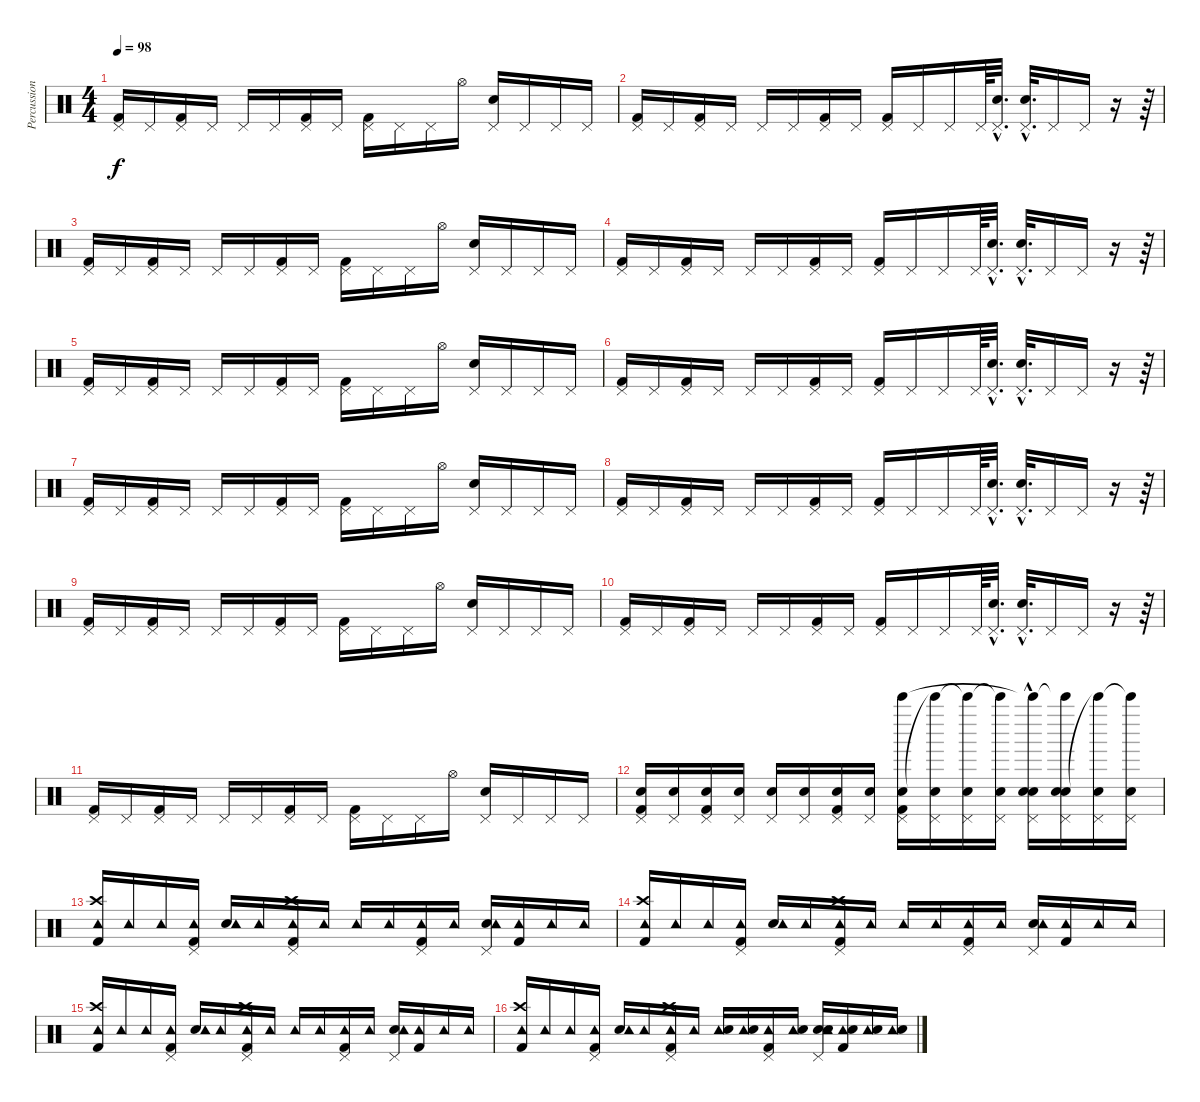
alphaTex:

\track ("Percussion" "Percussion") {instrument percussion}
\staff {score}
\articulation defaults
\ts (4 4)
\tempo 98
\clef neutral
\ks c
("Kick (hit) 2" "Pedal Hi-Hat (hit)").16{dy f} "Pedal Hi-Hat (hit)".16 ("Kick (hit) 2" "Pedal Hi-Hat (hit)").16 "Pedal Hi-Hat (hit)".16 "Pedal Hi-Hat (hit)".16 "Pedal Hi-Hat (hit)".16 ("Kick (hit) 2" "Pedal Hi-Hat (hit)").16 "Pedal Hi-Hat (hit)".16 ("Kick (hit) 2" "Pedal Hi-Hat (hit)").16 "Pedal Hi-Hat (hit)".16 "Pedal Hi-Hat (hit)".16 "Hi-Hat (open)".16 ("Snare (hit) 2" "Pedal Hi-Hat (hit)").16 "Pedal Hi-Hat (hit)".16 "Pedal Hi-Hat (hit)".16 "Pedal Hi-Hat (hit)".16 |
("Kick (hit) 2" "Pedal Hi-Hat (hit)").16 "Pedal Hi-Hat (hit)".16 ("Kick (hit) 2" "Pedal Hi-Hat (hit)").16 "Pedal Hi-Hat (hit)".16 "Pedal Hi-Hat (hit)".16 "Pedal Hi-Hat (hit)".16 ("Kick (hit) 2" "Pedal Hi-Hat (hit)").16 "Pedal Hi-Hat (hit)".16 ("Kick (hit) 2" "Pedal Hi-Hat (hit)").16 "Pedal Hi-Hat (hit)".16 "Pedal Hi-Hat (hit)".16 "Pedal Hi-Hat (hit)".64 ("Snare (hit) 2"{hac} "Pedal Hi-Hat (hit)"{hac}).32{d} ("Snare (hit) 2"{hac} "Pedal Hi-Hat (hit)"{hac}).32{d} "Pedal Hi-Hat (hit)".16 "Pedal Hi-Hat (hit)".16 r.16 r.64 |
("Kick (hit) 2" "Pedal Hi-Hat (hit)").16 "Pedal Hi-Hat (hit)".16 ("Kick (hit) 2" "Pedal Hi-Hat (hit)").16 "Pedal Hi-Hat (hit)".16 "Pedal Hi-Hat (hit)".16 "Pedal Hi-Hat (hit)".16 ("Kick (hit) 2" "Pedal Hi-Hat (hit)").16 "Pedal Hi-Hat (hit)".16 ("Kick (hit) 2" "Pedal Hi-Hat (hit)").16 "Pedal Hi-Hat (hit)".16 "Pedal Hi-Hat (hit)".16 "Hi-Hat (open)".16 ("Snare (hit) 2" "Pedal Hi-Hat (hit)").16 "Pedal Hi-Hat (hit)".16 "Pedal Hi-Hat (hit)".16 "Pedal Hi-Hat (hit)".16 |
("Kick (hit) 2" "Pedal Hi-Hat (hit)").16 "Pedal Hi-Hat (hit)".16 ("Kick (hit) 2" "Pedal Hi-Hat (hit)").16 "Pedal Hi-Hat (hit)".16 "Pedal Hi-Hat (hit)".16 "Pedal Hi-Hat (hit)".16 ("Kick (hit) 2" "Pedal Hi-Hat (hit)").16 "Pedal Hi-Hat (hit)".16 ("Kick (hit) 2" "Pedal Hi-Hat (hit)").16 "Pedal Hi-Hat (hit)".16 "Pedal Hi-Hat (hit)".16 "Pedal Hi-Hat (hit)".64 ("Snare (hit) 2"{hac} "Pedal Hi-Hat (hit)"{hac}).32{d} ("Snare (hit) 2"{hac} "Pedal Hi-Hat (hit)"{hac}).32{d} "Pedal Hi-Hat (hit)".16 "Pedal Hi-Hat (hit)".16 r.16 r.64 |
("Kick (hit) 2" "Pedal Hi-Hat (hit)").16 "Pedal Hi-Hat (hit)".16 ("Kick (hit) 2" "Pedal Hi-Hat (hit)").16 "Pedal Hi-Hat (hit)".16 "Pedal Hi-Hat (hit)".16 "Pedal Hi-Hat (hit)".16 ("Kick (hit) 2" "Pedal Hi-Hat (hit)").16 "Pedal Hi-Hat (hit)".16 ("Kick (hit) 2" "Pedal Hi-Hat (hit)").16 "Pedal Hi-Hat (hit)".16 "Pedal Hi-Hat (hit)".16 "Hi-Hat (open)".16 ("Snare (hit) 2" "Pedal Hi-Hat (hit)").16 "Pedal Hi-Hat (hit)".16 "Pedal Hi-Hat (hit)".16 "Pedal Hi-Hat (hit)".16 |
("Kick (hit) 2" "Pedal Hi-Hat (hit)").16 "Pedal Hi-Hat (hit)".16 ("Kick (hit) 2" "Pedal Hi-Hat (hit)").16 "Pedal Hi-Hat (hit)".16 "Pedal Hi-Hat (hit)".16 "Pedal Hi-Hat (hit)".16 ("Kick (hit) 2" "Pedal Hi-Hat (hit)").16 "Pedal Hi-Hat (hit)".16 ("Kick (hit) 2" "Pedal Hi-Hat (hit)").16 "Pedal Hi-Hat (hit)".16 "Pedal Hi-Hat (hit)".16 "Pedal Hi-Hat (hit)".64 ("Snare (hit) 2"{hac} "Pedal Hi-Hat (hit)"{hac}).32{d} ("Snare (hit) 2"{hac} "Pedal Hi-Hat (hit)"{hac}).32{d} "Pedal Hi-Hat (hit)".16 "Pedal Hi-Hat (hit)".16 r.16 r.64 |
("Kick (hit) 2" "Pedal Hi-Hat (hit)").16 "Pedal Hi-Hat (hit)".16 ("Kick (hit) 2" "Pedal Hi-Hat (hit)").16 "Pedal Hi-Hat (hit)".16 "Pedal Hi-Hat (hit)".16 "Pedal Hi-Hat (hit)".16 ("Kick (hit) 2" "Pedal Hi-Hat (hit)").16 "Pedal Hi-Hat (hit)".16 ("Kick (hit) 2" "Pedal Hi-Hat (hit)").16 "Pedal Hi-Hat (hit)".16 "Pedal Hi-Hat (hit)".16 "Hi-Hat (open)".16 ("Snare (hit) 2" "Pedal Hi-Hat (hit)").16 "Pedal Hi-Hat (hit)".16 "Pedal Hi-Hat (hit)".16 "Pedal Hi-Hat (hit)".16 |
("Kick (hit) 2" "Pedal Hi-Hat (hit)").16 "Pedal Hi-Hat (hit)".16 ("Kick (hit) 2" "Pedal Hi-Hat (hit)").16 "Pedal Hi-Hat (hit)".16 "Pedal Hi-Hat (hit)".16 "Pedal Hi-Hat (hit)".16 ("Kick (hit) 2" "Pedal Hi-Hat (hit)").16 "Pedal Hi-Hat (hit)".16 ("Kick (hit) 2" "Pedal Hi-Hat (hit)").16 "Pedal Hi-Hat (hit)".16 "Pedal Hi-Hat (hit)".16 "Pedal Hi-Hat (hit)".64 ("Snare (hit) 2"{hac} "Pedal Hi-Hat (hit)"{hac}).32{d} ("Snare (hit) 2"{hac} "Pedal Hi-Hat (hit)"{hac}).32{d} "Pedal Hi-Hat (hit)".16 "Pedal Hi-Hat (hit)".16 r.16 r.64 |
("Kick (hit) 2" "Pedal Hi-Hat (hit)").16 "Pedal Hi-Hat (hit)".16 ("Kick (hit) 2" "Pedal Hi-Hat (hit)").16 "Pedal Hi-Hat (hit)".16 "Pedal Hi-Hat (hit)".16 "Pedal Hi-Hat (hit)".16 ("Kick (hit) 2" "Pedal Hi-Hat (hit)").16 "Pedal Hi-Hat (hit)".16 ("Kick (hit) 2" "Pedal Hi-Hat (hit)").16 "Pedal Hi-Hat (hit)".16 "Pedal Hi-Hat (hit)".16 "Hi-Hat (open)".16 ("Snare (hit) 2" "Pedal Hi-Hat (hit)").16 "Pedal Hi-Hat (hit)".16 "Pedal Hi-Hat (hit)".16 "Pedal Hi-Hat (hit)".16 |
("Kick (hit) 2" "Pedal Hi-Hat (hit)").16 "Pedal Hi-Hat (hit)".16 ("Kick (hit) 2" "Pedal Hi-Hat (hit)").16 "Pedal Hi-Hat (hit)".16 "Pedal Hi-Hat (hit)".16 "Pedal Hi-Hat (hit)".16 ("Kick (hit) 2" "Pedal Hi-Hat (hit)").16 "Pedal Hi-Hat (hit)".16 ("Kick (hit) 2" "Pedal Hi-Hat (hit)").16 "Pedal Hi-Hat (hit)".16 "Pedal Hi-Hat (hit)".16 "Pedal Hi-Hat (hit)".64 ("Snare (hit) 2"{hac} "Pedal Hi-Hat (hit)"{hac}).32{d} ("Snare (hit) 2"{hac} "Pedal Hi-Hat (hit)"{hac}).32{d} "Pedal Hi-Hat (hit)".16 "Pedal Hi-Hat (hit)".16 r.16 r.64 |
("Kick (hit) 2" "Pedal Hi-Hat (hit)").16 "Pedal Hi-Hat (hit)".16 ("Kick (hit) 2" "Pedal Hi-Hat (hit)").16 "Pedal Hi-Hat (hit)".16 "Pedal Hi-Hat (hit)".16 "Pedal Hi-Hat (hit)".16 ("Kick (hit) 2" "Pedal Hi-Hat (hit)").16 "Pedal Hi-Hat (hit)".16 ("Kick (hit) 2" "Pedal Hi-Hat (hit)").16 "Pedal Hi-Hat (hit)".16 "Pedal Hi-Hat (hit)".16 "Hi-Hat (open)".16 ("Snare (hit) 2" "Pedal Hi-Hat (hit)").16 "Pedal Hi-Hat (hit)".16 "Pedal Hi-Hat (hit)".16 "Pedal Hi-Hat (hit)".16 |
("Kick (hit) 2" "Pedal Hi-Hat (hit)" "Snare (hit) 2").16 ("Pedal Hi-Hat (hit)" "Snare (hit) 2").16 ("Kick (hit) 2" "Pedal Hi-Hat (hit)" "Snare (hit) 2").16 ("Pedal Hi-Hat (hit)" "Snare (hit) 2").16 ("Pedal Hi-Hat (hit)" "Snare (hit) 2").16 ("Pedal Hi-Hat (hit)" "Snare (hit) 2").16 ("Kick (hit) 2" "Pedal Hi-Hat (hit)" "Snare (hit) 2").16 ("Pedal Hi-Hat (hit)" "Snare (hit) 2").16 ("Kick (hit) 2" "Pedal Hi-Hat (hit)" "Snare (hit) 2" "Bell Tree (hit)").16 ("Pedal Hi-Hat (hit)" "Snare (hit) 2" "Bell Tree (hit)"{t}).16 ("Pedal Hi-Hat (hit)" "Snare (hit) 2" "Bell Tree (hit)"{t}).16 ("Pedal Hi-Hat (hit)" "Snare (hit) 2" "Bell Tree (hit)"{t}).16 ("Snare (hit) 2" "Pedal Hi-Hat (hit)"{hac} "Snare (hit) 2" "Bell Tree (hit)"{t}).16 ("Snare (hit) 2" "Pedal Hi-Hat (hit)" "Snare (hit) 2" "Bell Tree (hit)"{t}).16 ("Pedal Hi-Hat (hit)" "Snare (hit) 2" "Bell Tree (hit)"{t}).16 ("Pedal Hi-Hat (hit)" "Snare (hit) 2" "Bell Tree (hit)"{t}).16 |
("Crash high (hit)" "Kick (hit) 2" "Tambourine (hit)").16 "Tambourine (hit)".16 "Tambourine (hit)".16 ("Pedal Hi-Hat (hit)" "Kick (hit) 2" "Tambourine (hit)").16 ("Snare (hit) 2" "Tambourine (hit)").16 "Tambourine (hit)".16 ("Crash high (hit)" "Kick (hit) 2" "Tambourine (hit)" "Pedal Hi-Hat (hit)").16 "Tambourine (hit)".16 "Tambourine (hit)".16 "Tambourine (hit)".16 ("Pedal Hi-Hat (hit)" "Kick (hit) 2" "Tambourine (hit)").16 "Tambourine (hit)".16 ("Pedal Hi-Hat (hit)" "Snare (hit) 2" "Tambourine (hit)").16 ("Kick (hit) 2" "Tambourine (hit)").16 "Tambourine (hit)".16 "Tambourine (hit)".16 |
("Crash high (hit)" "Kick (hit) 2" "Tambourine (hit)").16 "Tambourine (hit)".16 "Tambourine (hit)".16 ("Pedal Hi-Hat (hit)" "Kick (hit) 2" "Tambourine (hit)").16 ("Snare (hit) 2" "Tambourine (hit)").16 "Tambourine (hit)".16 ("Crash high (hit)" "Kick (hit) 2" "Tambourine (hit)" "Pedal Hi-Hat (hit)").16 "Tambourine (hit)".16 "Tambourine (hit)".16 "Tambourine (hit)".16 ("Pedal Hi-Hat (hit)" "Kick (hit) 2" "Tambourine (hit)").16 "Tambourine (hit)".16 ("Pedal Hi-Hat (hit)" "Snare (hit) 2" "Tambourine (hit)").16 ("Kick (hit) 2" "Tambourine (hit)").16 "Tambourine (hit)".16 "Tambourine (hit)".16 |
("Crash high (hit)" "Kick (hit) 2" "Tambourine (hit)").16 "Tambourine (hit)".16 "Tambourine (hit)".16 ("Pedal Hi-Hat (hit)" "Kick (hit) 2" "Tambourine (hit)").16 ("Snare (hit) 2" "Tambourine (hit)").16 "Tambourine (hit)".16 ("Crash high (hit)" "Kick (hit) 2" "Tambourine (hit)" "Pedal Hi-Hat (hit)").16 "Tambourine (hit)".16 "Tambourine (hit)".16 "Tambourine (hit)".16 ("Pedal Hi-Hat (hit)" "Kick (hit) 2" "Tambourine (hit)").16 "Tambourine (hit)".16 ("Pedal Hi-Hat (hit)" "Snare (hit) 2" "Tambourine (hit)").16 ("Kick (hit) 2" "Tambourine (hit)").16 "Tambourine (hit)".16 "Tambourine (hit)".16 |
("Crash high (hit)" "Kick (hit) 2" "Tambourine (hit)").16 "Tambourine (hit)".16 "Tambourine (hit)".16 ("Pedal Hi-Hat (hit)" "Kick (hit) 2" "Tambourine (hit)").16 ("Snare (hit) 2" "Tambourine (hit)").16 "Tambourine (hit)".16 ("Crash high (hit)" "Kick (hit) 2" "Tambourine (hit)" "Pedal Hi-Hat (hit)").16 "Tambourine (hit)".16 ("Tambourine (hit)" "Snare (hit) 2").16 ("Tambourine (hit)" "Snare (hit) 2").16 ("Pedal Hi-Hat (hit)" "Kick (hit) 2" "Tambourine (hit)").16 ("Tambourine (hit)" "Snare (hit) 2").16 ("Pedal Hi-Hat (hit)" "Snare (hit) 2" "Tambourine (hit)" "Snare (hit) 2").16 ("Kick (hit) 2" "Tambourine (hit)" "Snare (hit) 2").16 ("Tambourine (hit)" "Snare (hit) 2").16 ("Tambourine (hit)" "Snare (hit) 2").16
